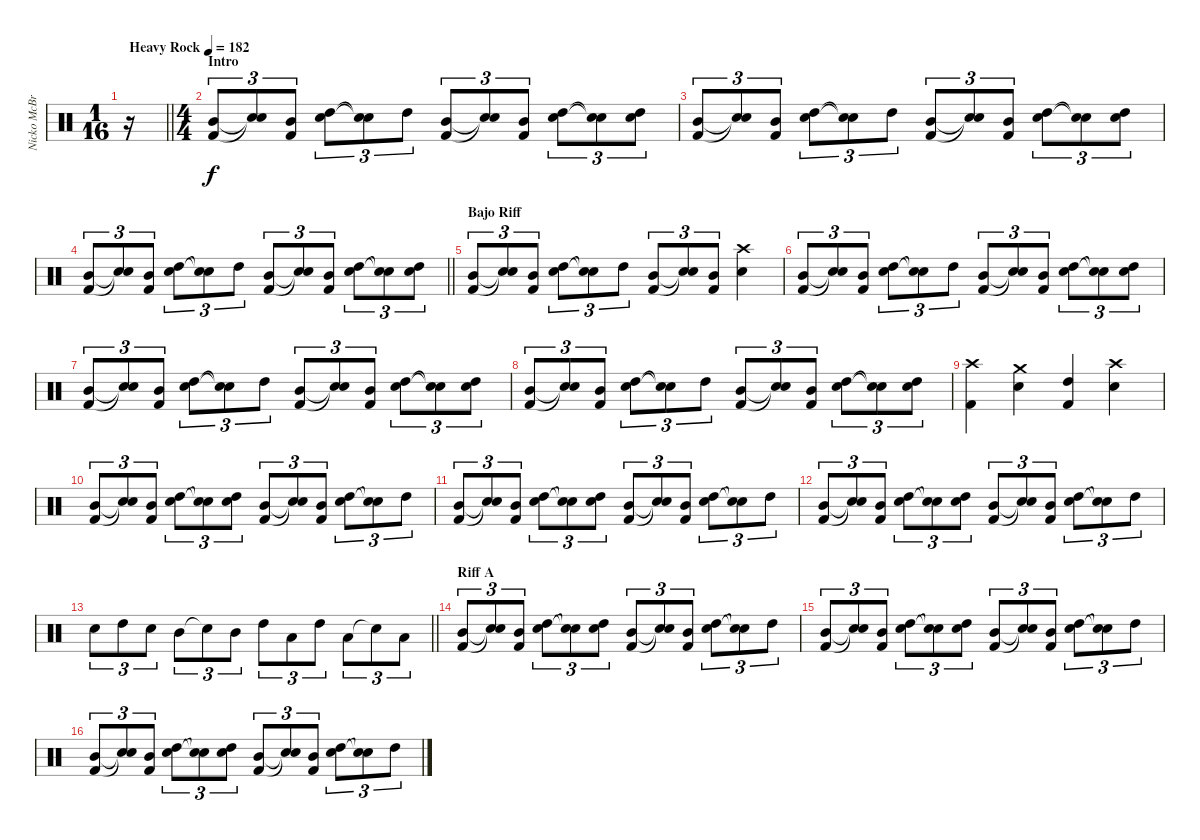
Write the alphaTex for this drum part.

\track ("Nicko McBrain" "Nicko McBr") {instrument percussion}
\staff {score}
\articulation defaults
\ts (1 16)
\tempo (182 "Heavy Rock")
\clef neutral
\barLineRight lightlight
\ks c
r.16{dy f} |
\ts (4 4)
\section ("" "Intro")
("Mid Tom (hit)" "Kick (hit) 2").8{tu (3 2)} ("Snare (hit)"{t} "Snare (hit)"{t}).8{tu (3 2)} ("Mid Tom (hit)" "Kick (hit) 2").8{tu (3 2)} ("High Tom (hit)" "Snare (hit) 2").8{tu (3 2)} ("Snare (hit)"{t} "Snare (hit)"{t}).8{tu (3 2)} "High Tom (hit)".8{tu (3 2)} ("Mid Tom (hit)" "Kick (hit) 2").8{tu (3 2)} ("Snare (hit)"{t} "Snare (hit)"{t}).8{tu (3 2)} ("Mid Tom (hit)" "Kick (hit) 2").8{tu (3 2)} ("High Tom (hit)" "Snare (hit) 2").8{tu (3 2)} ("Snare (hit)"{t} "Snare (hit)"{t}).8{tu (3 2)} ("High Tom (hit)" "Snare (hit) 2").8{tu (3 2)} |
("Mid Tom (hit)" "Kick (hit) 2").8{tu (3 2)} ("Snare (hit)"{t} "Snare (hit)"{t}).8{tu (3 2)} ("Mid Tom (hit)" "Kick (hit) 2").8{tu (3 2)} ("High Tom (hit)" "Snare (hit) 2").8{tu (3 2)} ("Snare (hit)"{t} "Snare (hit)"{t}).8{tu (3 2)} "High Tom (hit)".8{tu (3 2)} ("Mid Tom (hit)" "Kick (hit) 2").8{tu (3 2)} ("Snare (hit)"{t} "Snare (hit)"{t}).8{tu (3 2)} ("Mid Tom (hit)" "Kick (hit) 2").8{tu (3 2)} ("High Tom (hit)" "Snare (hit) 2").8{tu (3 2)} ("Snare (hit)"{t} "Snare (hit)"{t}).8{tu (3 2)} ("High Tom (hit)" "Snare (hit) 2").8{tu (3 2)} |
\barLineRight lightlight
("Mid Tom (hit)" "Kick (hit) 2").8{tu (3 2)} ("Snare (hit)"{t} "Snare (hit)"{t}).8{tu (3 2)} ("Mid Tom (hit)" "Kick (hit) 2").8{tu (3 2)} ("High Tom (hit)" "Snare (hit) 2").8{tu (3 2)} ("Snare (hit)"{t} "Snare (hit)"{t}).8{tu (3 2)} "High Tom (hit)".8{tu (3 2)} ("Mid Tom (hit)" "Kick (hit) 2").8{tu (3 2)} ("Snare (hit)"{t} "Snare (hit)"{t}).8{tu (3 2)} ("Mid Tom (hit)" "Kick (hit) 2").8{tu (3 2)} ("High Tom (hit)" "Snare (hit) 2").8{tu (3 2)} ("Snare (hit)"{t} "Snare (hit)"{t}).8{tu (3 2)} ("High Tom (hit)" "Snare (hit) 2").8{tu (3 2)} |
\section ("" "Bajo Riff")
("Mid Tom (hit)" "Kick (hit) 2").8{tu (3 2)} ("Snare (hit)"{t} "Snare (hit)"{t}).8{tu (3 2)} ("Mid Tom (hit)" "Kick (hit) 2").8{tu (3 2)} ("High Tom (hit)" "Snare (hit) 2").8{tu (3 2)} ("Snare (hit)"{t} "Snare (hit)"{t}).8{tu (3 2)} "High Tom (hit)".8{tu (3 2)} ("Mid Tom (hit)" "Kick (hit) 2").8{tu (3 2)} ("Snare (hit)"{t} "Snare (hit)"{t}).8{tu (3 2)} ("Mid Tom (hit)" "Kick (hit) 2").8{tu (3 2)} ("Snare (hit) 2" "Crash high (hit)").4 |
("Mid Tom (hit)" "Kick (hit) 2").8{tu (3 2)} ("Snare (hit)"{t} "Snare (hit)"{t}).8{tu (3 2)} ("Mid Tom (hit)" "Kick (hit) 2").8{tu (3 2)} ("High Tom (hit)" "Snare (hit) 2").8{tu (3 2)} ("Snare (hit)"{t} "Snare (hit)"{t}).8{tu (3 2)} "High Tom (hit)".8{tu (3 2)} ("Mid Tom (hit)" "Kick (hit) 2").8{tu (3 2)} ("Snare (hit)"{t} "Snare (hit)"{t}).8{tu (3 2)} ("Mid Tom (hit)" "Kick (hit) 2").8{tu (3 2)} ("High Tom (hit)" "Snare (hit) 2").8{tu (3 2)} ("Snare (hit)"{t} "Snare (hit)"{t}).8{tu (3 2)} ("High Tom (hit)" "Snare (hit) 2").8{tu (3 2)} |
("Mid Tom (hit)" "Kick (hit) 2").8{tu (3 2)} ("Snare (hit)"{t} "Snare (hit)"{t}).8{tu (3 2)} ("Mid Tom (hit)" "Kick (hit) 2").8{tu (3 2)} ("High Tom (hit)" "Snare (hit) 2").8{tu (3 2)} ("Snare (hit)"{t} "Snare (hit)"{t}).8{tu (3 2)} "High Tom (hit)".8{tu (3 2)} ("Mid Tom (hit)" "Kick (hit) 2").8{tu (3 2)} ("Snare (hit)"{t} "Snare (hit)"{t}).8{tu (3 2)} ("Mid Tom (hit)" "Kick (hit) 2").8{tu (3 2)} ("High Tom (hit)" "Snare (hit) 2").8{tu (3 2)} ("Snare (hit)"{t} "Snare (hit)"{t}).8{tu (3 2)} ("High Tom (hit)" "Snare (hit) 2").8{tu (3 2)} |
("Mid Tom (hit)" "Kick (hit) 2").8{tu (3 2)} ("Snare (hit)"{t} "Snare (hit)"{t}).8{tu (3 2)} ("Mid Tom (hit)" "Kick (hit) 2").8{tu (3 2)} ("High Tom (hit)" "Snare (hit) 2").8{tu (3 2)} ("Snare (hit)"{t} "Snare (hit)"{t}).8{tu (3 2)} "High Tom (hit)".8{tu (3 2)} ("Mid Tom (hit)" "Kick (hit) 2").8{tu (3 2)} ("Snare (hit)"{t} "Snare (hit)"{t}).8{tu (3 2)} ("Mid Tom (hit)" "Kick (hit) 2").8{tu (3 2)} ("High Tom (hit)" "Snare (hit) 2").8{tu (3 2)} ("Snare (hit)"{t} "Snare (hit)"{t}).8{tu (3 2)} ("High Tom (hit)" "Snare (hit) 2").8{tu (3 2)} |
("Kick (hit) 2" "Crash high (hit)").4 ("Snare (hit) 2" "Crash medium (hit)").4 ("High Tom (hit)" "Kick (hit) 2").4 ("Snare (hit) 2" "Crash high (hit)").4 |
("Mid Tom (hit)" "Kick (hit) 2").8{tu (3 2)} ("Snare (hit)"{t} "Snare (hit)"{t}).8{tu (3 2)} ("Mid Tom (hit)" "Kick (hit) 2").8{tu (3 2)} ("High Tom (hit)" "Snare (hit) 2").8{tu (3 2)} ("Snare (hit)"{t} "Snare (hit)"{t}).8{tu (3 2)} ("High Tom (hit)" "Snare (hit) 2").8{tu (3 2)} ("Mid Tom (hit)" "Kick (hit) 2").8{tu (3 2)} ("Snare (hit)"{t} "Snare (hit)"{t}).8{tu (3 2)} ("Mid Tom (hit)" "Kick (hit) 2").8{tu (3 2)} ("High Tom (hit)" "Snare (hit) 2").8{tu (3 2)} ("Snare (hit)"{t} "Snare (hit)"{t}).8{tu (3 2)} "High Tom (hit)".8{tu (3 2)} |
("Mid Tom (hit)" "Kick (hit) 2").8{tu (3 2)} ("Snare (hit)"{t} "Snare (hit)"{t}).8{tu (3 2)} ("Mid Tom (hit)" "Kick (hit) 2").8{tu (3 2)} ("High Tom (hit)" "Snare (hit) 2").8{tu (3 2)} ("Snare (hit)"{t} "Snare (hit)"{t}).8{tu (3 2)} ("High Tom (hit)" "Snare (hit) 2").8{tu (3 2)} ("Mid Tom (hit)" "Kick (hit) 2").8{tu (3 2)} ("Snare (hit)"{t} "Snare (hit)"{t}).8{tu (3 2)} ("Mid Tom (hit)" "Kick (hit) 2").8{tu (3 2)} ("High Tom (hit)" "Snare (hit) 2").8{tu (3 2)} ("Snare (hit)"{t} "Snare (hit)"{t}).8{tu (3 2)} "High Tom (hit)".8{tu (3 2)} |
("Mid Tom (hit)" "Kick (hit) 2").8{tu (3 2)} ("Snare (hit)"{t} "Snare (hit)"{t}).8{tu (3 2)} ("Mid Tom (hit)" "Kick (hit) 2").8{tu (3 2)} ("High Tom (hit)" "Snare (hit) 2").8{tu (3 2)} ("Snare (hit)"{t} "Snare (hit)"{t}).8{tu (3 2)} ("High Tom (hit)" "Snare (hit) 2").8{tu (3 2)} ("Mid Tom (hit)" "Kick (hit) 2").8{tu (3 2)} ("Snare (hit)"{t} "Snare (hit)"{t}).8{tu (3 2)} ("Mid Tom (hit)" "Kick (hit) 2").8{tu (3 2)} ("High Tom (hit)" "Snare (hit) 2").8{tu (3 2)} ("Snare (hit)"{t} "Snare (hit)"{t}).8{tu (3 2)} "High Tom (hit)".8{tu (3 2)} |
\barLineRight lightlight "Snare (hit) 2".8{tu (3 2)} "High Tom (hit)".8{tu (3 2)} "Snare (hit) 2".8{tu (3 2)} "Mid Tom (hit)".8{tu (3 2)} "Snare (hit)"{t}.8{tu (3 2)} "Mid Tom (hit)".8{tu (3 2)} "High Tom (hit)".8{tu (3 2)} "Low Tom (hit)".8{tu (3 2)} "High Tom (hit)".8{tu (3 2)} "Low Tom (hit)".8{tu (3 2)} "Snare (hit)"{t}.8{tu (3 2)} "Low Tom (hit)".8{tu (3 2)}
|
\section ("" "Riff A")
("Mid Tom (hit)" "Kick (hit) 2").8{tu (3 2)} ("Snare (hit)"{t} "Snare (hit)"{t}).8{tu (3 2)} ("Mid Tom (hit)" "Kick (hit) 2").8{tu (3 2)} ("High Tom (hit)" "Snare (hit) 2").8{tu (3 2)} ("Snare (hit)"{t} "Snare (hit)"{t}).8{tu (3 2)} ("High Tom (hit)" "Snare (hit) 2").8{tu (3 2)} ("Mid Tom (hit)" "Kick (hit) 2").8{tu (3 2)} ("Snare (hit)"{t} "Snare (hit)"{t}).8{tu (3 2)} ("Mid Tom (hit)" "Kick (hit) 2").8{tu (3 2)} ("High Tom (hit)" "Snare (hit) 2").8{tu (3 2)} ("Snare (hit)"{t} "Snare (hit)"{t}).8{tu (3 2)} "High Tom (hit)".8{tu (3 2)} |
("Mid Tom (hit)" "Kick (hit) 2").8{tu (3 2)} ("Snare (hit)"{t} "Snare (hit)"{t}).8{tu (3 2)} ("Mid Tom (hit)" "Kick (hit) 2").8{tu (3 2)} ("High Tom (hit)" "Snare (hit) 2").8{tu (3 2)} ("Snare (hit)"{t} "Snare (hit)"{t}).8{tu (3 2)} ("High Tom (hit)" "Snare (hit) 2").8{tu (3 2)} ("Mid Tom (hit)" "Kick (hit) 2").8{tu (3 2)} ("Snare (hit)"{t} "Snare (hit)"{t}).8{tu (3 2)} ("Mid Tom (hit)" "Kick (hit) 2").8{tu (3 2)} ("High Tom (hit)" "Snare (hit) 2").8{tu (3 2)} ("Snare (hit)"{t} "Snare (hit)"{t}).8{tu (3 2)} "High Tom (hit)".8{tu (3 2)} |
("Mid Tom (hit)" "Kick (hit) 2").8{tu (3 2)} ("Snare (hit)"{t} "Snare (hit)"{t}).8{tu (3 2)} ("Mid Tom (hit)" "Kick (hit) 2").8{tu (3 2)} ("High Tom (hit)" "Snare (hit) 2").8{tu (3 2)} ("Snare (hit)"{t} "Snare (hit)"{t}).8{tu (3 2)} ("High Tom (hit)" "Snare (hit) 2").8{tu (3 2)} ("Mid Tom (hit)" "Kick (hit) 2").8{tu (3 2)} ("Snare (hit)"{t} "Snare (hit)"{t}).8{tu (3 2)} ("Mid Tom (hit)" "Kick (hit) 2").8{tu (3 2)} ("High Tom (hit)" "Snare (hit) 2").8{tu (3 2)} ("Snare (hit)"{t} "Snare (hit)"{t}).8{tu (3 2)} "High Tom (hit)".8{tu (3 2)}
